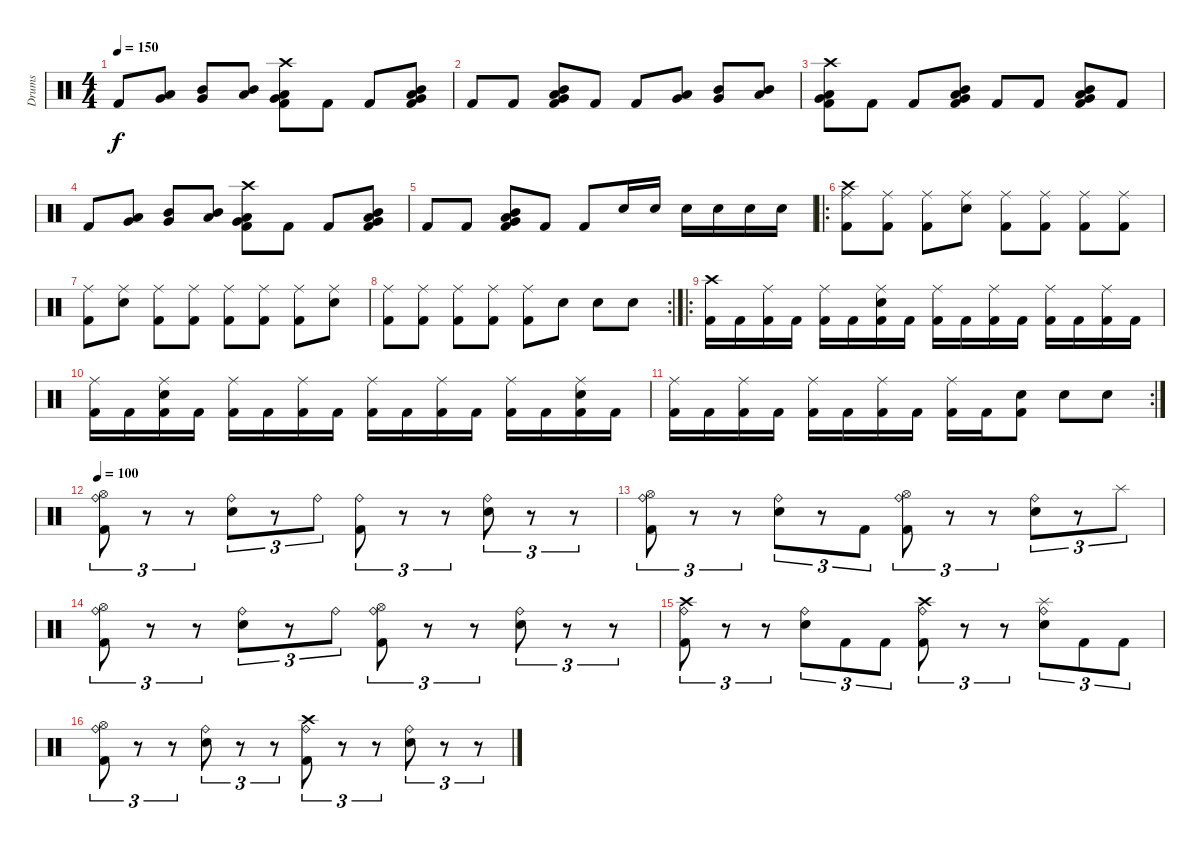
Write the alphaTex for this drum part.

\track ("Drums" "Drums") {instrument percussion}
\staff {score}
\articulation defaults
\ts (4 4)
\tempo 150
\clef neutral
\ks c "Kick (hit) 2".8{dy f}
("Very Low Tom (hit)" "Low Floor Tom (hit)").8 ("Mid Tom (hit)" "Very Low Tom (hit)").8 ("Low Tom (hit)" "Mid Tom (hit)").8 ("Crash high (hit)" "Very Low Tom (hit)" "Kick (hit) 2" "Low Floor Tom (hit)").8 "Kick (hit) 2".8 "Kick (hit) 2".8 ("Mid Tom (hit)" "Very Low Tom (hit)" "Kick (hit) 2" "Low Floor Tom (hit)").8 |
"Kick (hit) 2".8 "Kick (hit) 2".8 ("Mid Tom (hit)" "Very Low Tom (hit)" "Kick (hit) 2" "Low Floor Tom (hit)").8 "Kick (hit) 2".8 "Kick (hit) 2".8 ("Very Low Tom (hit)" "Low Floor Tom (hit)").8 ("Mid Tom (hit)" "Very Low Tom (hit)").8 ("Low Tom (hit)" "Mid Tom (hit)").8 |
("Crash high (hit)" "Very Low Tom (hit)" "Kick (hit) 2" "Low Floor Tom (hit)").8 "Kick (hit) 2".8 "Kick (hit) 2".8 ("Mid Tom (hit)" "Very Low Tom (hit)" "Kick (hit) 2" "Low Floor Tom (hit)").8 "Kick (hit) 2".8 "Kick (hit) 2".8 ("Mid Tom (hit)" "Very Low Tom (hit)" "Kick (hit) 2" "Low Floor Tom (hit)").8 "Kick (hit) 2".8 |
"Kick (hit) 2".8 ("Very Low Tom (hit)" "Low Floor Tom (hit)").8 ("Mid Tom (hit)" "Very Low Tom (hit)").8 ("Low Tom (hit)" "Mid Tom (hit)").8 ("Crash high (hit)" "Very Low Tom (hit)" "Kick (hit) 2" "Low Floor Tom (hit)").8 "Kick (hit) 2".8 "Kick (hit) 2".8 ("Mid Tom (hit)" "Very Low Tom (hit)" "Kick (hit) 2" "Low Floor Tom (hit)").8 |
"Kick (hit) 2".8 "Kick (hit) 2".8 ("Mid Tom (hit)" "Very Low Tom (hit)" "Kick (hit) 2" "Low Floor Tom (hit)").8 "Kick (hit) 2".8 "Kick (hit) 2".8 "Snare (hit) 2".16 "Snare (hit) 2".16 "Snare (hit) 2".16 "Snare (hit) 2".16 "Snare (hit) 2".16 "Snare (hit) 2".16 |
\ro
("Crash high (hit)" "Ride (middle)" "Kick (hit) 2").8 ("Ride (middle)" "Kick (hit) 2").8 ("Ride (middle)" "Kick (hit) 2").8 ("Ride (middle)" "Snare (hit) 2").8 ("Ride (middle)" "Kick (hit) 2").8 ("Ride (middle)" "Kick (hit) 2").8 ("Ride (middle)" "Kick (hit) 2").8 ("Ride (middle)" "Kick (hit) 2").8 |
("Ride (middle)" "Kick (hit) 2").8 ("Ride (middle)" "Snare (hit) 2").8 ("Ride (middle)" "Kick (hit) 2").8 ("Ride (middle)" "Kick (hit) 2").8 ("Ride (middle)" "Kick (hit) 2").8 ("Ride (middle)" "Kick (hit) 2").8 ("Ride (middle)" "Kick (hit) 2").8 ("Ride (middle)" "Snare (hit) 2").8 |
\rc 2
("Ride (middle)" "Kick (hit) 2").8 ("Ride (middle)" "Kick (hit) 2").8 ("Ride (middle)" "Kick (hit) 2").8 ("Ride (middle)" "Kick (hit) 2").8 ("Ride (middle)" "Kick (hit) 2").8 "Snare (hit) 2".8 "Snare (hit) 2".8 "Snare (hit) 2".8 |
\ro
("Crash high (hit)" "Kick (hit) 2").16 "Kick (hit) 2".16 ("Ride (middle)" "Kick (hit) 2").16 "Kick (hit) 2".16 ("Ride (middle)" "Kick (hit) 2").16 "Kick (hit) 2".16 ("Ride (middle)" "Snare (hit) 2" "Kick (hit) 2").16 "Kick (hit) 2".16 ("Ride (middle)" "Kick (hit) 2").16 "Kick (hit) 2".16 ("Ride (middle)" "Kick (hit) 2").16 "Kick (hit) 2".16 ("Ride (middle)" "Kick (hit) 2").16 "Kick (hit) 2".16 ("Ride (middle)" "Kick (hit) 2").16 "Kick (hit) 2".16 |
("Ride (middle)" "Kick (hit) 2").16 "Kick (hit) 2".16 ("Ride (middle)" "Snare (hit) 2" "Kick (hit) 2").16 "Kick (hit) 2".16 ("Ride (middle)" "Kick (hit) 2").16 "Kick (hit) 2".16 ("Ride (middle)" "Kick (hit) 2").16 "Kick (hit) 2".16 ("Ride (middle)" "Kick (hit) 2").16 "Kick (hit) 2".16 ("Ride (middle)" "Kick (hit) 2").16 "Kick (hit) 2".16 ("Ride (middle)" "Kick (hit) 2").16 "Kick (hit) 2".16 ("Ride (middle)" "Snare (hit) 2" "Kick (hit) 2").16 "Kick (hit) 2".16 |
\rc 2
("Ride (middle)" "Kick (hit) 2").16 "Kick (hit) 2".16 ("Ride (middle)" "Kick (hit) 2").16 "Kick (hit) 2".16 ("Ride (middle)" "Kick (hit) 2").16 "Kick (hit) 2".16 ("Ride (middle)" "Kick (hit) 2").16 "Kick (hit) 2".16 ("Ride (middle)" "Kick (hit) 2").16 "Kick (hit) 2".16 ("Snare (hit) 2" "Kick (hit) 2").8 "Snare (hit) 2".8 "Snare (hit) 2".8 |
\tempo 100
("Hi-Hat (open)" "Ride (bell)" "Kick (hit) 2").8{tu (3 2)} r.8{tu (3 2)} r.8{tu (3 2)} ("Ride (bell)" "Electric Snare (hit)").8{tu (3 2)} r.8{tu (3 2)} "Ride (bell)".8{tu (3 2)} ("Ride (bell)" "Kick (hit) 2").8{tu (3 2)} r.8{tu (3 2)} r.8{tu (3 2)} ("Ride (bell)" "Electric Snare (hit)").8{tu (3 2)} r.8{tu (3 2)} r.8{tu (3 2)} |
("Hi-Hat (open)" "Ride (bell)" "Kick (hit) 2").8{tu (3 2)} r.8{tu (3 2)} r.8{tu (3 2)} ("Ride (bell)" "Electric Snare (hit)").8{tu (3 2)} r.8{tu (3 2)} "Kick (hit) 2".8{tu (3 2)} ("Hi-Hat (open)" "Ride (bell)" "Kick (hit) 2").8{tu (3 2)} r.8{tu (3 2)} r.8{tu (3 2)} ("Ride (bell)" "Electric Snare (hit)").8{tu (3 2)} r.8{tu (3 2)} "Splash (hit)".8{tu (3 2)} |
("Hi-Hat (open)" "Ride (bell)" "Kick (hit) 2").8{tu (3 2)} r.8{tu (3 2)} r.8{tu (3 2)} ("Ride (bell)" "Electric Snare (hit)").8{tu (3 2)} r.8{tu (3 2)} "Ride (bell)".8{tu (3 2)} ("Hi-Hat (open)" "Ride (bell)" "Kick (hit) 2").8{tu (3 2)} r.8{tu (3 2)} r.8{tu (3 2)} ("Ride (bell)" "Electric Snare (hit)").8{tu (3 2)} r.8{tu (3 2)} r.8{tu (3 2)} |
("Crash high (hit)" "Ride (bell)" "Kick (hit) 2").8{tu (3 2)} r.8{tu (3 2)} r.8{tu (3 2)} ("Ride (bell)" "Electric Snare (hit)").8{tu (3 2)} "Kick (hit) 2".8{tu (3 2)} "Kick (hit) 2".8{tu (3 2)} ("Crash high (hit)" "Ride (bell)" "Kick (hit) 2").8{tu (3 2)} r.8{tu (3 2)} r.8{tu (3 2)} ("Splash (hit)" "Ride (bell)" "Electric Snare (hit)").8{tu (3 2)} "Kick (hit) 2".8{tu (3 2)} "Kick (hit) 2".8{tu (3 2)} |
("Hi-Hat (open)" "Ride (bell)" "Kick (hit) 2").8{tu (3 2)} r.8{tu (3 2)} r.8{tu (3 2)} ("Ride (bell)" "Electric Snare (hit)").8{tu (3 2)} r.8{tu (3 2)} r.8{tu (3 2)} ("Crash high (hit)" "Ride (bell)" "Kick (hit) 2").8{tu (3 2)} r.8{tu (3 2)} r.8{tu (3 2)} ("Ride (bell)" "Electric Snare (hit)").8{tu (3 2)} r.8{tu (3 2)} r.8{tu (3 2)}
